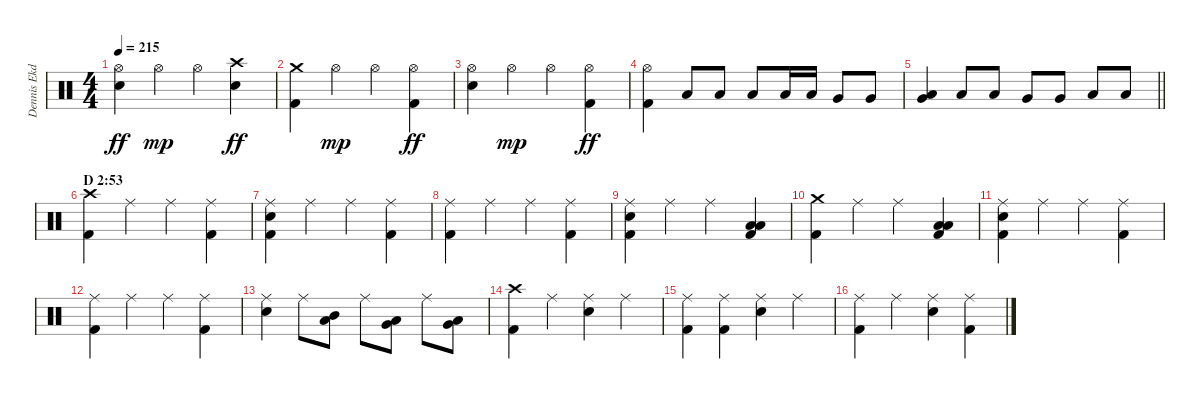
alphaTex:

\track ("Dennis Ekdahl      (Drums)" "Dennis Ekd") {instrument percussion}
\staff {score}
\articulation defaults
\ts (4 4)
\tempo 215
\clef neutral
\ks c
("Hi-Hat (open)" "Electric Snare (hit)").4{dy ff} "Hi-Hat (open)".4{dy mp} "Hi-Hat (open)".4 ("Crash high (hit)" "Electric Snare (hit)").4{dy ff} |
("Crash medium (hit)" "Kick (hit) 2").4 "Hi-Hat (open)".4{dy mp} "Hi-Hat (open)".4 ("Hi-Hat (open)" "Kick (hit) 2").4{dy ff} |
("Hi-Hat (open)" "Electric Snare (hit)").4 "Hi-Hat (open)".4{dy mp} "Hi-Hat (open)".4 ("Hi-Hat (open)" "Kick (hit) 2").4{dy ff} |
("Hi-Hat (open)" "Kick (hit) 2").4 "Low Tom (hit)".8 "Low Tom (hit)".8 "Low Tom (hit)".8 "Low Tom (hit)".16 "Low Tom (hit)".16 "Very Low Tom (hit)".8 "Very Low Tom (hit)".8 |
\barLineRight lightlight
("Very Low Tom (hit)" "Low Floor Tom (hit)").4 "Low Tom (hit)".8 "Low Tom (hit)".8 "Very Low Tom (hit)".8 "Very Low Tom (hit)".8 "Low Floor Tom (hit)".8 "Low Floor Tom (hit)".8 |
\section ("" "D 2:53")
("Crash high (hit)" "Kick (hit) 2").4 "Ride (middle)".4 "Ride (middle)".4 ("Ride (middle)" "Kick (hit) 2").4 |
("Ride (middle)" "Electric Snare (hit)" "Kick (hit) 2").4 "Ride (middle)".4 "Ride (middle)".4 ("Ride (middle)" "Kick (hit) 2").4 |
("Ride (middle)" "Kick (hit) 2").4 "Ride (middle)".4 "Ride (middle)".4 ("Ride (middle)" "Kick (hit) 2").4 |
("Ride (middle)" "Electric Snare (hit)" "Kick (hit) 2").4 "Ride (middle)".4 "Ride (middle)".4 ("Low Tom (hit)" "Low Floor Tom (hit)" "Kick (hit) 2").4 |
("Crash medium (hit)" "Kick (hit) 2").4 "Ride (middle)".4 "Ride (middle)".4 ("Low Tom (hit)" "Low Floor Tom (hit)" "Kick (hit) 2").4 |
("Ride (middle)" "Electric Snare (hit)" "Kick (hit) 2").4 "Ride (middle)".4 "Ride (middle)".4 ("Ride (middle)" "Kick (hit) 2").4 |
("Ride (middle)" "Kick (hit) 2").4 "Ride (middle)".4 "Ride (middle)".4 ("Ride (middle)" "Kick (hit) 2").4 |
("Ride (middle)" "Electric Snare (hit)").4 "Ride (middle)".8 ("Mid Tom (hit)" "Low Tom (hit)").8 "Ride (middle)".8 ("Low Tom (hit)" "Very Low Tom (hit)").8 "Ride (middle)".8 ("Very Low Tom (hit)" "Low Floor Tom (hit)").8 |
("Crash high (hit)" "Kick (hit) 2").4 "Ride (middle)".4 ("Ride (middle)" "Electric Snare (hit)").4 "Ride (middle)".4 |
("Ride (middle)" "Kick (hit) 2").4 ("Ride (middle)" "Kick (hit) 2").4 ("Ride (middle)" "Electric Snare (hit)").4 "Ride (middle)".4 |
("Ride (middle)" "Kick (hit) 2").4 "Ride (middle)".4 ("Ride (middle)" "Electric Snare (hit)").4 ("Ride (middle)" "Kick (hit) 2").4
